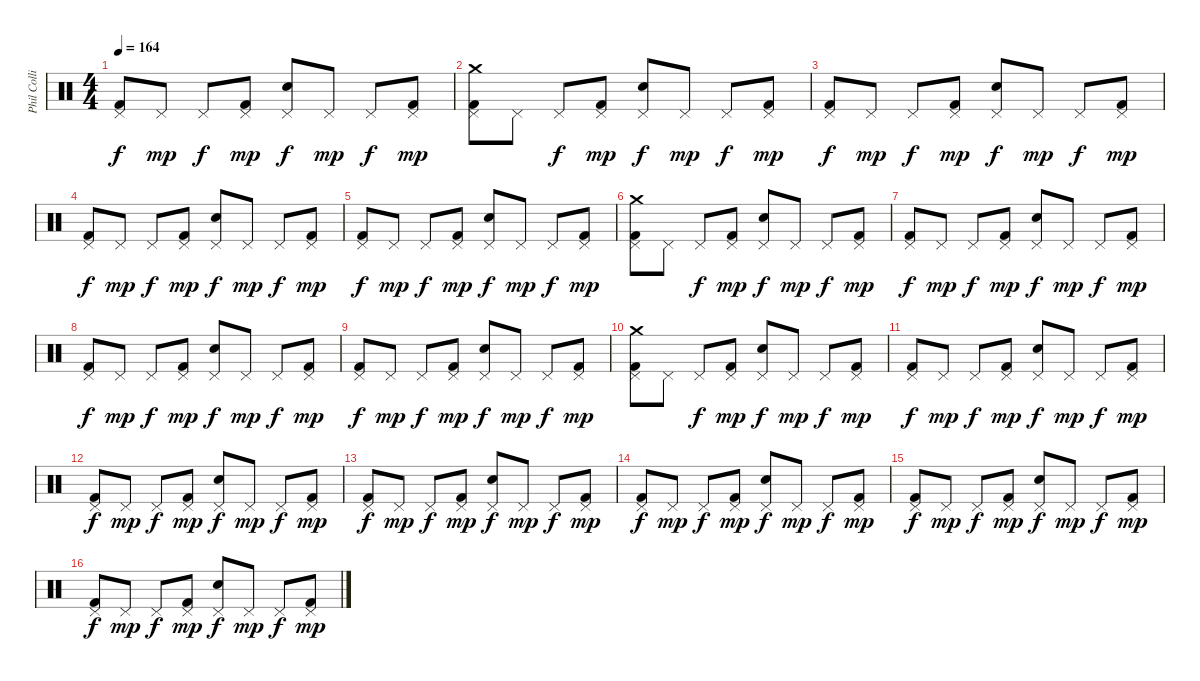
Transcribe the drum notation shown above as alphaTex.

\track ("Phil Collins (drums)" "Phil Colli") {instrument percussion}
\staff {score}
\articulation defaults
\ts (4 4)
\tempo 164
\clef neutral
\ks c
("Pedal Hi-Hat (hit)" "Kick (hit) 2").8{dy f} "Pedal Hi-Hat (hit)".8{dy mp} "Pedal Hi-Hat (hit)".8{dy f} ("Pedal Hi-Hat (hit)" "Kick (hit) 2").8{dy mp} ("Pedal Hi-Hat (hit)" "Electric Snare (hit)").8{dy f} "Pedal Hi-Hat (hit)".8{dy mp} "Pedal Hi-Hat (hit)".8{dy f} ("Pedal Hi-Hat (hit)" "Kick (hit) 2").8{dy mp} |
("Crash medium (hit)" "Pedal Hi-Hat (hit)" "Kick (hit) 2").8 "Pedal Hi-Hat (hit)".8 "Pedal Hi-Hat (hit)".8{dy f} ("Pedal Hi-Hat (hit)" "Kick (hit) 2").8{dy mp} ("Pedal Hi-Hat (hit)" "Electric Snare (hit)").8{dy f} "Pedal Hi-Hat (hit)".8{dy mp} "Pedal Hi-Hat (hit)".8{dy f} ("Pedal Hi-Hat (hit)" "Kick (hit) 2").8{dy mp} |
("Pedal Hi-Hat (hit)" "Kick (hit) 2").8{dy f} "Pedal Hi-Hat (hit)".8{dy mp} "Pedal Hi-Hat (hit)".8{dy f} ("Pedal Hi-Hat (hit)" "Kick (hit) 2").8{dy mp} ("Pedal Hi-Hat (hit)" "Electric Snare (hit)").8{dy f} "Pedal Hi-Hat (hit)".8{dy mp} "Pedal Hi-Hat (hit)".8{dy f} ("Pedal Hi-Hat (hit)" "Kick (hit) 2").8{dy mp} |
("Pedal Hi-Hat (hit)" "Kick (hit) 2").8{dy f} "Pedal Hi-Hat (hit)".8{dy mp} "Pedal Hi-Hat (hit)".8{dy f} ("Pedal Hi-Hat (hit)" "Kick (hit) 2").8{dy mp} ("Pedal Hi-Hat (hit)" "Electric Snare (hit)").8{dy f} "Pedal Hi-Hat (hit)".8{dy mp} "Pedal Hi-Hat (hit)".8{dy f} ("Pedal Hi-Hat (hit)" "Kick (hit) 2").8{dy mp} |
("Pedal Hi-Hat (hit)" "Kick (hit) 2").8{dy f} "Pedal Hi-Hat (hit)".8{dy mp} "Pedal Hi-Hat (hit)".8{dy f} ("Pedal Hi-Hat (hit)" "Kick (hit) 2").8{dy mp} ("Pedal Hi-Hat (hit)" "Electric Snare (hit)").8{dy f} "Pedal Hi-Hat (hit)".8{dy mp} "Pedal Hi-Hat (hit)".8{dy f} ("Pedal Hi-Hat (hit)" "Kick (hit) 2").8{dy mp} |
("Crash medium (hit)" "Pedal Hi-Hat (hit)" "Kick (hit) 2").8 "Pedal Hi-Hat (hit)".8 "Pedal Hi-Hat (hit)".8{dy f} ("Pedal Hi-Hat (hit)" "Kick (hit) 2").8{dy mp} ("Pedal Hi-Hat (hit)" "Electric Snare (hit)").8{dy f} "Pedal Hi-Hat (hit)".8{dy mp} "Pedal Hi-Hat (hit)".8{dy f} ("Pedal Hi-Hat (hit)" "Kick (hit) 2").8{dy mp} |
("Pedal Hi-Hat (hit)" "Kick (hit) 2").8{dy f} "Pedal Hi-Hat (hit)".8{dy mp} "Pedal Hi-Hat (hit)".8{dy f} ("Pedal Hi-Hat (hit)" "Kick (hit) 2").8{dy mp} ("Pedal Hi-Hat (hit)" "Electric Snare (hit)").8{dy f} "Pedal Hi-Hat (hit)".8{dy mp} "Pedal Hi-Hat (hit)".8{dy f} ("Pedal Hi-Hat (hit)" "Kick (hit) 2").8{dy mp} |
("Pedal Hi-Hat (hit)" "Kick (hit) 2").8{dy f} "Pedal Hi-Hat (hit)".8{dy mp} "Pedal Hi-Hat (hit)".8{dy f} ("Pedal Hi-Hat (hit)" "Kick (hit) 2").8{dy mp} ("Pedal Hi-Hat (hit)" "Electric Snare (hit)").8{dy f} "Pedal Hi-Hat (hit)".8{dy mp} "Pedal Hi-Hat (hit)".8{dy f} ("Pedal Hi-Hat (hit)" "Kick (hit) 2").8{dy mp} |
("Pedal Hi-Hat (hit)" "Kick (hit) 2").8{dy f} "Pedal Hi-Hat (hit)".8{dy mp} "Pedal Hi-Hat (hit)".8{dy f} ("Pedal Hi-Hat (hit)" "Kick (hit) 2").8{dy mp} ("Pedal Hi-Hat (hit)" "Electric Snare (hit)").8{dy f} "Pedal Hi-Hat (hit)".8{dy mp} "Pedal Hi-Hat (hit)".8{dy f} ("Pedal Hi-Hat (hit)" "Kick (hit) 2").8{dy mp} |
("Crash medium (hit)" "Pedal Hi-Hat (hit)" "Kick (hit) 2").8 "Pedal Hi-Hat (hit)".8 "Pedal Hi-Hat (hit)".8{dy f} ("Pedal Hi-Hat (hit)" "Kick (hit) 2").8{dy mp} ("Pedal Hi-Hat (hit)" "Electric Snare (hit)").8{dy f} "Pedal Hi-Hat (hit)".8{dy mp} "Pedal Hi-Hat (hit)".8{dy f} ("Pedal Hi-Hat (hit)" "Kick (hit) 2").8{dy mp} |
("Pedal Hi-Hat (hit)" "Kick (hit) 2").8{dy f} "Pedal Hi-Hat (hit)".8{dy mp} "Pedal Hi-Hat (hit)".8{dy f} ("Pedal Hi-Hat (hit)" "Kick (hit) 2").8{dy mp} ("Pedal Hi-Hat (hit)" "Electric Snare (hit)").8{dy f} "Pedal Hi-Hat (hit)".8{dy mp} "Pedal Hi-Hat (hit)".8{dy f} ("Pedal Hi-Hat (hit)" "Kick (hit) 2").8{dy mp} |
("Pedal Hi-Hat (hit)" "Kick (hit) 2").8{dy f} "Pedal Hi-Hat (hit)".8{dy mp} "Pedal Hi-Hat (hit)".8{dy f} ("Pedal Hi-Hat (hit)" "Kick (hit) 2").8{dy mp} ("Pedal Hi-Hat (hit)" "Electric Snare (hit)").8{dy f} "Pedal Hi-Hat (hit)".8{dy mp} "Pedal Hi-Hat (hit)".8{dy f} ("Pedal Hi-Hat (hit)" "Kick (hit) 2").8{dy mp} |
("Pedal Hi-Hat (hit)" "Kick (hit) 2").8{dy f} "Pedal Hi-Hat (hit)".8{dy mp} "Pedal Hi-Hat (hit)".8{dy f} ("Pedal Hi-Hat (hit)" "Kick (hit) 2").8{dy mp} ("Pedal Hi-Hat (hit)" "Electric Snare (hit)").8{dy f} "Pedal Hi-Hat (hit)".8{dy mp} "Pedal Hi-Hat (hit)".8{dy f} ("Pedal Hi-Hat (hit)" "Kick (hit) 2").8{dy mp} |
("Pedal Hi-Hat (hit)" "Kick (hit) 2").8{dy f} "Pedal Hi-Hat (hit)".8{dy mp} "Pedal Hi-Hat (hit)".8{dy f} ("Pedal Hi-Hat (hit)" "Kick (hit) 2").8{dy mp} ("Pedal Hi-Hat (hit)" "Electric Snare (hit)").8{dy f} "Pedal Hi-Hat (hit)".8{dy mp} "Pedal Hi-Hat (hit)".8{dy f} ("Pedal Hi-Hat (hit)" "Kick (hit) 2").8{dy mp} |
("Pedal Hi-Hat (hit)" "Kick (hit) 2").8{dy f} "Pedal Hi-Hat (hit)".8{dy mp} "Pedal Hi-Hat (hit)".8{dy f} ("Pedal Hi-Hat (hit)" "Kick (hit) 2").8{dy mp} ("Pedal Hi-Hat (hit)" "Electric Snare (hit)").8{dy f} "Pedal Hi-Hat (hit)".8{dy mp} "Pedal Hi-Hat (hit)".8{dy f} ("Pedal Hi-Hat (hit)" "Kick (hit) 2").8{dy mp} |
("Pedal Hi-Hat (hit)" "Kick (hit) 2").8{dy f} "Pedal Hi-Hat (hit)".8{dy mp} "Pedal Hi-Hat (hit)".8{dy f} ("Pedal Hi-Hat (hit)" "Kick (hit) 2").8{dy mp} ("Pedal Hi-Hat (hit)" "Electric Snare (hit)").8{dy f} "Pedal Hi-Hat (hit)".8{dy mp} "Pedal Hi-Hat (hit)".8{dy f} ("Pedal Hi-Hat (hit)" "Kick (hit) 2").8{dy mp}
